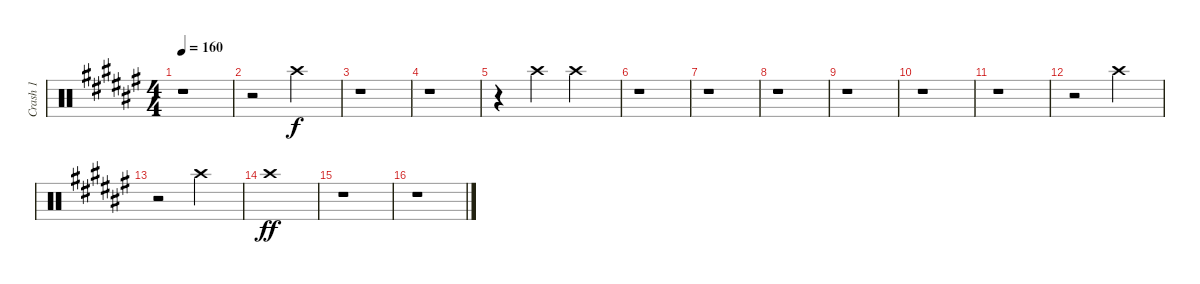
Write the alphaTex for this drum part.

\track ("Crash 1" "Crash 1") {instrument percussion}
\staff {score}
\articulation defaults
\ts (4 4)
\tempo 160
\clef neutral
\ks d#minor
r.1{dy f} |
r.2 "Crash high (hit)".2 |
r.1 |
r.1 |
r.4 "Crash high (hit)".4 "Crash high (hit)".2 |
r.1 |
r.1 |
r.1 |
r.1 |
r.1 |
r.1 |
r.2 "Crash high (hit)".2 |
r.2 "Crash high (hit)".2 |
"Crash high (hit)".1{dy ff} |
r.1 |
r.1
